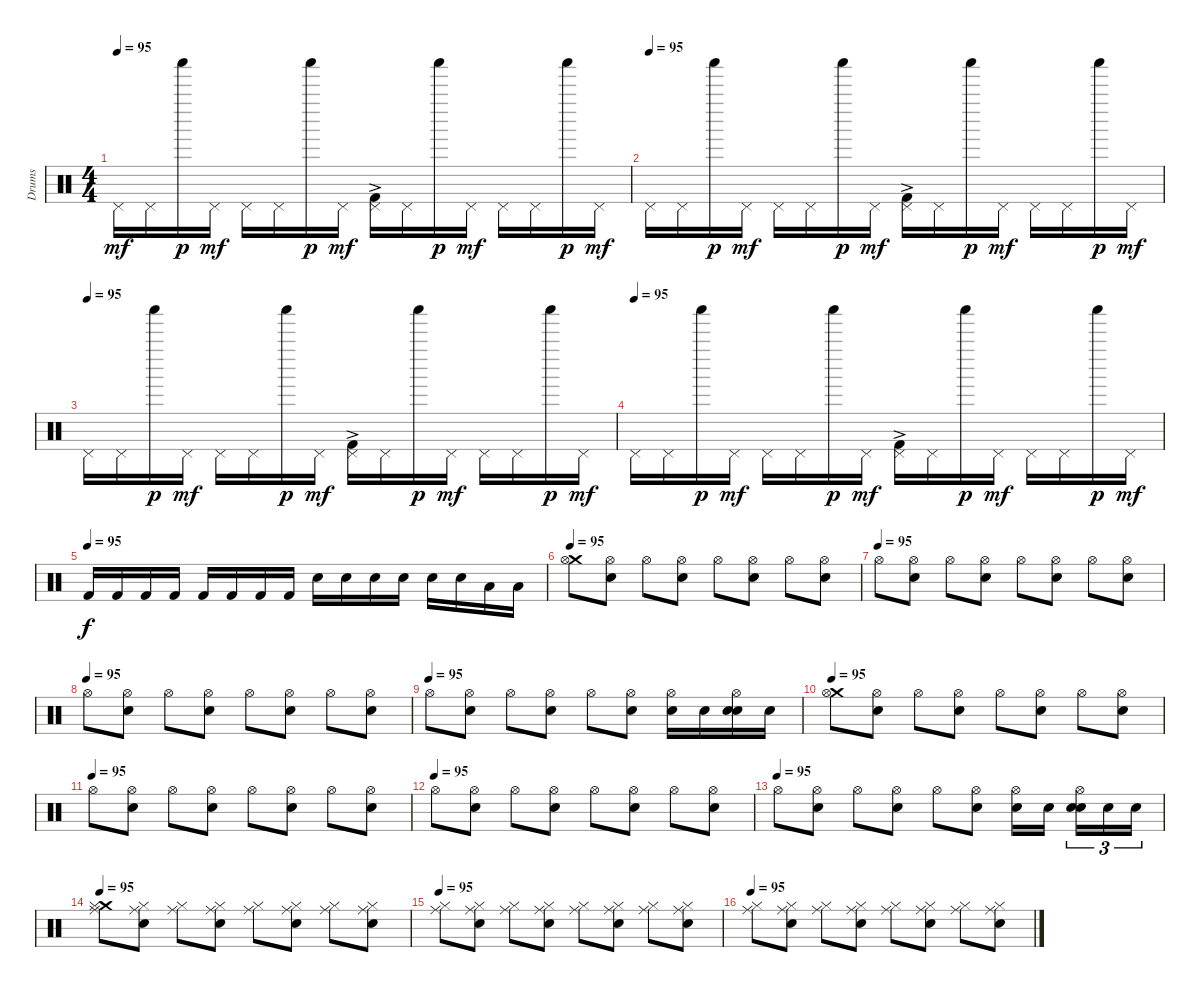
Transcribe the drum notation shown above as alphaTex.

\track ("Drums" "Drums") {instrument percussion}
\staff {score}
\articulation defaults
\ts (4 4)
\tempo 95
\clef neutral
\ks c "Pedal Hi-Hat (hit)"{pm}.16{dy mf} "Pedal Hi-Hat (hit)"{pm}.16 "Shaker (hit)".16{dy p} "Pedal Hi-Hat (hit)"{pm}.16{dy mf} "Pedal Hi-Hat (hit)"{pm}.16 "Pedal Hi-Hat (hit)"{pm}.16 "Shaker (hit)".16{dy p} "Pedal Hi-Hat (hit)"{pm}.16{dy mf}
("Kick (hit) 2"{ac} "Pedal Hi-Hat (hit)").16 "Pedal Hi-Hat (hit)"{pm}.16 "Shaker (hit)".16{dy p} "Pedal Hi-Hat (hit)"{pm}.16{dy mf} "Pedal Hi-Hat (hit)"{pm}.16 "Pedal Hi-Hat (hit)"{pm}.16 "Shaker (hit)".16{dy p} "Pedal Hi-Hat (hit)"{pm}.16{dy mf} |
\tempo (95)
"Pedal Hi-Hat (hit)"{pm}.16 "Pedal Hi-Hat (hit)"{pm}.16 "Shaker (hit)".16{dy p} "Pedal Hi-Hat (hit)"{pm}.16{dy mf} "Pedal Hi-Hat (hit)"{pm}.16 "Pedal Hi-Hat (hit)"{pm}.16 "Shaker (hit)".16{dy p} "Pedal Hi-Hat (hit)"{pm}.16{dy mf} ("Kick (hit) 2"{ac} "Pedal Hi-Hat (hit)").16 "Pedal Hi-Hat (hit)"{pm}.16 "Shaker (hit)".16{dy p} "Pedal Hi-Hat (hit)"{pm}.16{dy mf} "Pedal Hi-Hat (hit)"{pm}.16 "Pedal Hi-Hat (hit)"{pm}.16 "Shaker (hit)".16{dy p} "Pedal Hi-Hat (hit)"{pm}.16{dy mf} |
\tempo (95)
"Pedal Hi-Hat (hit)"{pm}.16 "Pedal Hi-Hat (hit)"{pm}.16 "Shaker (hit)".16{dy p} "Pedal Hi-Hat (hit)"{pm}.16{dy mf} "Pedal Hi-Hat (hit)"{pm}.16 "Pedal Hi-Hat (hit)"{pm}.16 "Shaker (hit)".16{dy p} "Pedal Hi-Hat (hit)"{pm}.16{dy mf} ("Kick (hit) 2"{ac} "Pedal Hi-Hat (hit)").16 "Pedal Hi-Hat (hit)"{pm}.16 "Shaker (hit)".16{dy p} "Pedal Hi-Hat (hit)"{pm}.16{dy mf} "Pedal Hi-Hat (hit)"{pm}.16 "Pedal Hi-Hat (hit)"{pm}.16 "Shaker (hit)".16{dy p} "Pedal Hi-Hat (hit)"{pm}.16{dy mf} |
\tempo (95)
"Pedal Hi-Hat (hit)"{pm}.16 "Pedal Hi-Hat (hit)"{pm}.16 "Shaker (hit)".16{dy p} "Pedal Hi-Hat (hit)"{pm}.16{dy mf} "Pedal Hi-Hat (hit)"{pm}.16 "Pedal Hi-Hat (hit)"{pm}.16 "Shaker (hit)".16{dy p} "Pedal Hi-Hat (hit)"{pm}.16{dy mf} ("Kick (hit) 2"{ac} "Pedal Hi-Hat (hit)").16 "Pedal Hi-Hat (hit)"{pm}.16 "Shaker (hit)".16{dy p} "Pedal Hi-Hat (hit)"{pm}.16{dy mf} "Pedal Hi-Hat (hit)"{pm}.16 "Pedal Hi-Hat (hit)"{pm}.16 "Shaker (hit)".16{dy p} "Pedal Hi-Hat (hit)"{pm}.16{dy mf} |
\tempo (95)
"Kick (hit) 2".16{dy f} "Kick (hit) 2".16 "Kick (hit) 2".16 "Kick (hit) 2".16 "Kick (hit) 2".16 "Kick (hit) 2".16 "Kick (hit) 2".16 "Kick (hit) 2".16 "Snare (hit) 2".16 "Snare (hit) 2".16 "Snare (hit) 2".16 "Snare (hit) 2".16 "Snare (hit) 2".16 "Snare (hit) 2".16 "Low Tom (hit)".16 "Low Tom (hit)".16 |
\tempo 95
("Crash medium (hit)" "Hi-Hat (open)").8 ("Hi-Hat (open)" "Snare (hit) 2").8 "Hi-Hat (open)".8 ("Hi-Hat (open)" "Snare (hit) 2").8 "Hi-Hat (open)".8 ("Hi-Hat (open)" "Snare (hit) 2").8 "Hi-Hat (open)".8 ("Hi-Hat (open)" "Snare (hit) 2").8 |
\tempo (95)
"Hi-Hat (open)".8 ("Hi-Hat (open)" "Snare (hit) 2").8 "Hi-Hat (open)".8 ("Hi-Hat (open)" "Snare (hit) 2").8 "Hi-Hat (open)".8 ("Hi-Hat (open)" "Snare (hit) 2").8 "Hi-Hat (open)".8 ("Hi-Hat (open)" "Snare (hit) 2").8 |
\tempo (95)
"Hi-Hat (open)".8 ("Hi-Hat (open)" "Snare (hit) 2").8 "Hi-Hat (open)".8 ("Hi-Hat (open)" "Snare (hit) 2").8 "Hi-Hat (open)".8 ("Hi-Hat (open)" "Snare (hit) 2").8 "Hi-Hat (open)".8 ("Hi-Hat (open)" "Snare (hit) 2").8 |
\tempo (95)
"Hi-Hat (open)".8 ("Hi-Hat (open)" "Snare (hit) 2").8 "Hi-Hat (open)".8 ("Hi-Hat (open)" "Snare (hit) 2").8 "Hi-Hat (open)".8 ("Hi-Hat (open)" "Snare (hit) 2").8 ("Hi-Hat (open)" "Electric Snare (hit)").16 "Electric Snare (hit)".16 ("Hi-Hat (open)" "Snare (hit) 2" "Electric Snare (hit)").16 "Electric Snare (hit)".16 |
\tempo 95
("Crash medium (hit)" "Hi-Hat (open)").8 ("Hi-Hat (open)" "Snare (hit) 2").8 "Hi-Hat (open)".8 ("Hi-Hat (open)" "Snare (hit) 2").8 "Hi-Hat (open)".8 ("Hi-Hat (open)" "Snare (hit) 2").8 "Hi-Hat (open)".8 ("Hi-Hat (open)" "Snare (hit) 2").8 |
\tempo (95)
"Hi-Hat (open)".8 ("Hi-Hat (open)" "Snare (hit) 2").8 "Hi-Hat (open)".8 ("Hi-Hat (open)" "Snare (hit) 2").8 "Hi-Hat (open)".8 ("Hi-Hat (open)" "Snare (hit) 2").8 "Hi-Hat (open)".8 ("Hi-Hat (open)" "Snare (hit) 2").8 |
\tempo (95)
"Hi-Hat (open)".8 ("Hi-Hat (open)" "Snare (hit) 2").8 "Hi-Hat (open)".8 ("Hi-Hat (open)" "Snare (hit) 2").8 "Hi-Hat (open)".8 ("Hi-Hat (open)" "Snare (hit) 2").8 "Hi-Hat (open)".8 ("Hi-Hat (open)" "Snare (hit) 2").8 |
\tempo (95)
"Hi-Hat (open)".8 ("Hi-Hat (open)" "Snare (hit) 2").8 "Hi-Hat (open)".8 ("Hi-Hat (open)" "Snare (hit) 2").8 "Hi-Hat (open)".8 ("Hi-Hat (open)" "Snare (hit) 2").8 ("Hi-Hat (open)" "Electric Snare (hit)").16 "Electric Snare (hit)".16 ("Hi-Hat (open)" "Snare (hit) 2" "Electric Snare (hit)").16{tu (3 2)} "Electric Snare (hit)".16{tu (3 2)} "Electric Snare (hit)".16{tu (3 2)} |
\tempo 95
("Crash medium (hit)" "Ride (middle)" "Hi-Hat (closed)").8 ("Ride (middle)" "Snare (hit) 2" "Hi-Hat (closed)").8 ("Ride (middle)" "Hi-Hat (closed)").8 ("Ride (middle)" "Snare (hit) 2" "Hi-Hat (closed)").8 ("Ride (middle)" "Hi-Hat (closed)").8 ("Ride (middle)" "Snare (hit) 2" "Hi-Hat (closed)").8 ("Ride (middle)" "Hi-Hat (closed)").8 ("Ride (middle)" "Snare (hit) 2" "Hi-Hat (closed)").8 |
\tempo 95
("Ride (middle)" "Hi-Hat (closed)").8 ("Ride (middle)" "Snare (hit) 2" "Hi-Hat (closed)").8 ("Ride (middle)" "Hi-Hat (closed)").8 ("Ride (middle)" "Snare (hit) 2" "Hi-Hat (closed)").8 ("Ride (middle)" "Hi-Hat (closed)").8 ("Ride (middle)" "Snare (hit) 2" "Hi-Hat (closed)").8 ("Ride (middle)" "Hi-Hat (closed)").8 ("Ride (middle)" "Snare (hit) 2" "Hi-Hat (closed)").8 |
\tempo 95
("Ride (middle)" "Hi-Hat (closed)").8 ("Ride (middle)" "Snare (hit) 2" "Hi-Hat (closed)").8 ("Ride (middle)" "Hi-Hat (closed)").8 ("Ride (middle)" "Snare (hit) 2" "Hi-Hat (closed)").8 ("Ride (middle)" "Hi-Hat (closed)").8 ("Ride (middle)" "Snare (hit) 2" "Hi-Hat (closed)").8 ("Ride (middle)" "Hi-Hat (closed)").8 ("Ride (middle)" "Snare (hit) 2" "Hi-Hat (closed)").8
